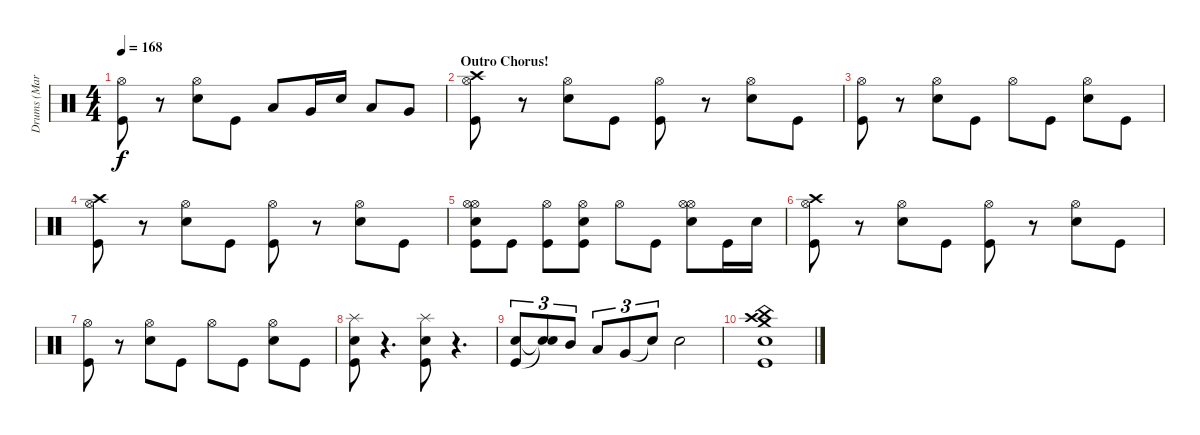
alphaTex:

\track ("Drums (Mark Michals)" "Drums (Mar") {instrument percussion}
\staff {score}
\articulation defaults
\ts (4 4)
\tempo 168
\clef neutral
\ks c
("Hi-Hat (open)" "Kick (hit)").8{dy f} r.8 ("Hi-Hat (open)" "Snare (hit) 2").8 "Kick (hit)".8 "Low Tom (hit)".8 "Very Low Tom (hit)".16 "Snare (hit) 2".16 "Low Tom (hit)".8 "Very Low Tom (hit)".8 |
\section ("" "Outro Chorus!")
("Hi-Hat (open)" "Crash high (hit)" "Kick (hit)").8 r.8 ("Hi-Hat (open)" "Snare (hit) 2").8 "Kick (hit)".8 ("Hi-Hat (open)" "Kick (hit)").8 r.8 ("Hi-Hat (open)" "Snare (hit) 2").8 "Kick (hit)".8 |
("Hi-Hat (open)" "Kick (hit)").8 r.8 ("Hi-Hat (open)" "Snare (hit) 2").8 "Kick (hit)".8 "Hi-Hat (open)".8 "Kick (hit)".8 ("Hi-Hat (open)" "Snare (hit) 2").8 "Kick (hit)".8 |
("Hi-Hat (open)" "Crash high (hit)" "Kick (hit)").8 r.8 ("Hi-Hat (open)" "Snare (hit) 2").8 "Kick (hit)".8 ("Hi-Hat (open)" "Kick (hit)").8 r.8 ("Hi-Hat (open)" "Snare (hit) 2").8 "Kick (hit)".8 |
("Hi-Hat (open)" "Hi-Hat (open)" "Snare (hit) 2" "Kick (hit)").8 "Kick (hit)".8 ("Hi-Hat (open)" "Kick (hit)").8 ("Hi-Hat (open)" "Snare (hit) 2" "Kick (hit)").8 "Hi-Hat (open)".8 "Kick (hit)".8 ("Hi-Hat (open)" "Hi-Hat (open)" "Snare (hit) 2").8 "Kick (hit)".16 "Snare (hit) 2".16 |
("Hi-Hat (open)" "Crash high (hit)" "Kick (hit)").8 r.8 ("Hi-Hat (open)" "Snare (hit) 2").8 "Kick (hit)".8 ("Hi-Hat (open)" "Kick (hit)").8 r.8 ("Hi-Hat (open)" "Snare (hit) 2").8 "Kick (hit)".8 |
("Hi-Hat (open)" "Kick (hit)").8 r.8 ("Hi-Hat (open)" "Snare (hit) 2").8 "Kick (hit)".8 "Hi-Hat (open)".8 "Kick (hit)".8 ("Hi-Hat (open)" "Snare (hit) 2").8 "Kick (hit)".8 |
("Splash (hit)" "Snare (hit) 2" "Kick (hit)").8 r.4{d} ("Splash (hit)" "Snare (hit) 2" "Kick (hit)").8 r.4{d} |
("Snare (hit) 2" "Kick (hit)").8{tu (3 2)} ("Snare (hit) 2"{t} "Snare (hit)"{t}).8{tu (3 2)} "Mid Tom (hit)".8{tu (3 2)} "Low Tom (hit)".8{tu (3 2)} "Very Low Tom (hit)".8{tu (3 2)} "Snare (hit)"{t}.8{tu (3 2)} "Snare (hit) 2".2 |
("China (hit)" "Crash medium (hit)" "Crash high (hit)" "Snare (hit) 2" "Kick (hit)").1
